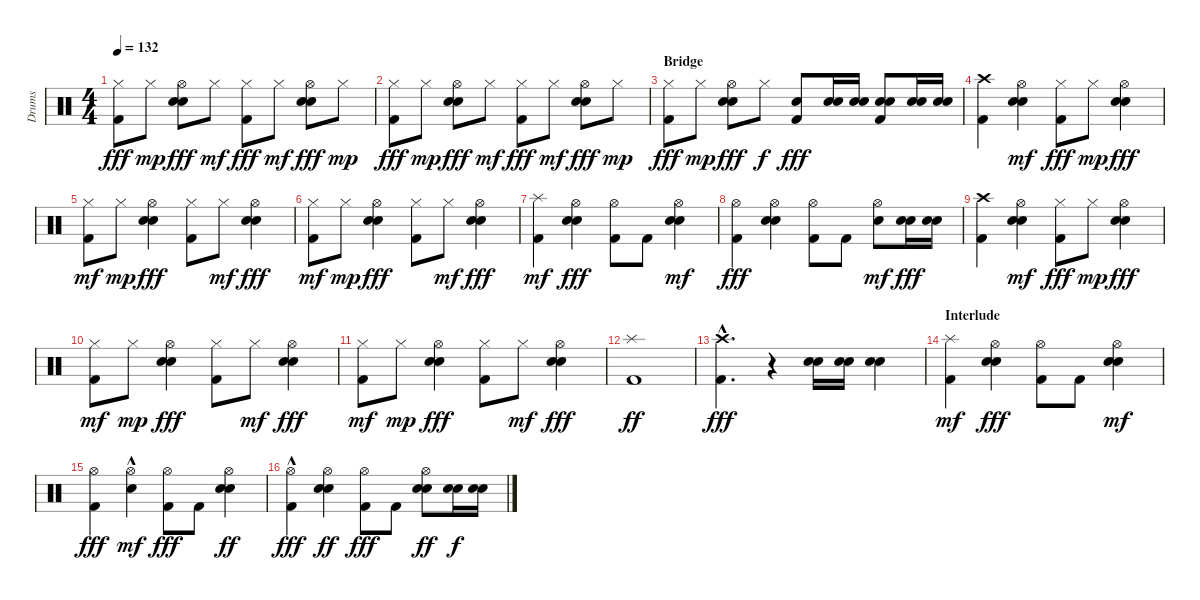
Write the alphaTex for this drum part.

\track ("Drums" "Drums") {instrument percussion}
\staff {score}
\articulation defaults
\ts (4 4)
\tempo 132
\clef neutral
\ks c
("Kick (hit) 2" "Hi-Hat (closed)").8{dy fff} "Hi-Hat (closed)".8{dy mp} ("Hi-Hat (open)" "Snare (hit) 2" "Electric Snare (hit)").8{dy fff} "Hi-Hat (closed)".8{dy mf} ("Hi-Hat (closed)" "Kick (hit) 2").8{dy fff} "Hi-Hat (closed)".8{dy mf} ("Hi-Hat (open)" "Snare (hit) 2" "Electric Snare (hit)").8{dy fff} "Hi-Hat (closed)".8{dy mp} |
("Kick (hit) 2" "Hi-Hat (closed)").8{dy fff} "Hi-Hat (closed)".8{dy mp} ("Hi-Hat (open)" "Snare (hit) 2" "Electric Snare (hit)").8{dy fff} "Hi-Hat (closed)".8{dy mf} ("Hi-Hat (closed)" "Kick (hit) 2").8{dy fff} "Hi-Hat (closed)".8{dy mf} ("Hi-Hat (open)" "Snare (hit) 2" "Electric Snare (hit)").8{dy fff} "Hi-Hat (closed)".8{dy mp} |
\section ("" "Bridge ")
("Hi-Hat (closed)" "Kick (hit) 2").8{dy fff} "Hi-Hat (closed)".8{dy mp} ("Hi-Hat (open)" "Snare (hit) 2" "Electric Snare (hit)").8{dy fff} "Hi-Hat (closed)".8{dy f} ("Snare (hit) 2" "Kick (hit) 2").8{dy fff} ("Snare (hit) 2" "Electric Snare (hit)").16 ("Snare (hit) 2" "Electric Snare (hit)").16 ("Snare (hit) 2" "Kick (hit) 2" "Electric Snare (hit)").8 ("Snare (hit) 2" "Electric Snare (hit)").16 ("Snare (hit) 2" "Electric Snare (hit)").16 |
("Kick (hit) 2" "Crash high (hit)").4 ("Snare (hit) 2" "Hi-Hat (open)" "Electric Snare (hit)").4{dy mf} ("Hi-Hat (closed)" "Kick (hit) 2").8{dy fff} "Hi-Hat (closed)".8{dy mp} ("Hi-Hat (open)" "Snare (hit) 2" "Electric Snare (hit)").4{dy fff} |
("Kick (hit) 2" "Hi-Hat (closed)").8{dy mf} "Hi-Hat (closed)".8{dy mp} ("Hi-Hat (open)" "Snare (hit) 2" "Electric Snare (hit)").4{dy fff} ("Kick (hit) 2" "Hi-Hat (closed)").8 "Hi-Hat (closed)".8{dy mf} ("Hi-Hat (open)" "Snare (hit) 2" "Electric Snare (hit)").4{dy fff} |
("Kick (hit) 2" "Hi-Hat (closed)").8{dy mf} "Hi-Hat (closed)".8{dy mp} ("Hi-Hat (open)" "Snare (hit) 2" "Electric Snare (hit)").4{dy fff} ("Kick (hit) 2" "Hi-Hat (closed)").8 "Hi-Hat (closed)".8{dy mf} ("Hi-Hat (open)" "Snare (hit) 2" "Electric Snare (hit)").4{dy fff} |
("Kick (hit) 2" "Splash (hit)").4{dy mf} ("Hi-Hat (open)" "Snare (hit) 2" "Electric Snare (hit)").4{dy fff} ("Hi-Hat (open)" "Kick (hit) 2").8 "Kick (hit) 2".8 ("Snare (hit) 2" "Hi-Hat (open)" "Electric Snare (hit)").4{dy mf} |
("Hi-Hat (open)" "Kick (hit) 2").4{dy fff} ("Hi-Hat (open)" "Snare (hit) 2" "Electric Snare (hit)").4 ("Hi-Hat (open)" "Kick (hit) 2").8 "Kick (hit) 2".8 ("Snare (hit) 2" "Hi-Hat (open)").8{dy mf} ("Snare (hit) 2" "Electric Snare (hit)").16{dy fff} ("Snare (hit) 2" "Electric Snare (hit)").16 |
("Kick (hit) 2" "Crash high (hit)").4 ("Snare (hit) 2" "Hi-Hat (open)" "Electric Snare (hit)").4{dy mf} ("Hi-Hat (closed)" "Kick (hit) 2").8{dy fff} "Hi-Hat (closed)".8{dy mp} ("Hi-Hat (open)" "Snare (hit) 2" "Electric Snare (hit)").4{dy fff} |
("Kick (hit) 2" "Hi-Hat (closed)").8{dy mf} "Hi-Hat (closed)".8{dy mp} ("Hi-Hat (open)" "Snare (hit) 2" "Electric Snare (hit)").4{dy fff} ("Kick (hit) 2" "Hi-Hat (closed)").8 "Hi-Hat (closed)".8{dy mf} ("Hi-Hat (open)" "Snare (hit) 2" "Electric Snare (hit)").4{dy fff} |
("Kick (hit) 2" "Hi-Hat (closed)").8{dy mf} "Hi-Hat (closed)".8{dy mp} ("Hi-Hat (open)" "Snare (hit) 2" "Electric Snare (hit)").4{dy fff} ("Kick (hit) 2" "Hi-Hat (closed)").8 "Hi-Hat (closed)".8{dy mf} ("Hi-Hat (open)" "Snare (hit) 2" "Electric Snare (hit)").4{dy fff} |
("Kick (hit) 2" "Splash (hit)").1{dy ff} |
("Crash high (hit)"{hac} "Kick (hit) 2"{hac}).4{d dy fff} r.4 ("Snare (hit) 2" "Electric Snare (hit)").16 ("Snare (hit) 2" "Electric Snare (hit)").16 ("Snare (hit) 2" "Electric Snare (hit)").4 |
\section ("" "Interlude")
("Kick (hit) 2" "Splash (hit)").4{dy mf} ("Hi-Hat (open)" "Snare (hit) 2" "Electric Snare (hit)").4{dy fff} ("Hi-Hat (open)" "Kick (hit) 2").8 "Kick (hit) 2".8 ("Snare (hit) 2" "Hi-Hat (open)" "Electric Snare (hit)").4{dy mf} |
("Hi-Hat (open)" "Kick (hit) 2").4{dy fff} ("Snare (hit) 2"{hac} "Hi-Hat (open)").4{dy mf} ("Hi-Hat (open)" "Kick (hit) 2").8{dy fff} "Kick (hit) 2".8 ("Hi-Hat (open)" "Snare (hit) 2" "Electric Snare (hit)").4{dy ff} |
("Hi-Hat (open)" "Kick (hit) 2"{hac}).4{dy fff} ("Hi-Hat (open)" "Snare (hit) 2" "Electric Snare (hit)").4{dy ff} ("Hi-Hat (open)" "Kick (hit) 2").8{dy fff} "Kick (hit) 2".8 ("Hi-Hat (open)" "Snare (hit) 2" "Electric Snare (hit)").8{dy ff} ("Snare (hit) 2" "Electric Snare (hit)").16{dy f} ("Snare (hit) 2" "Electric Snare (hit)").16
